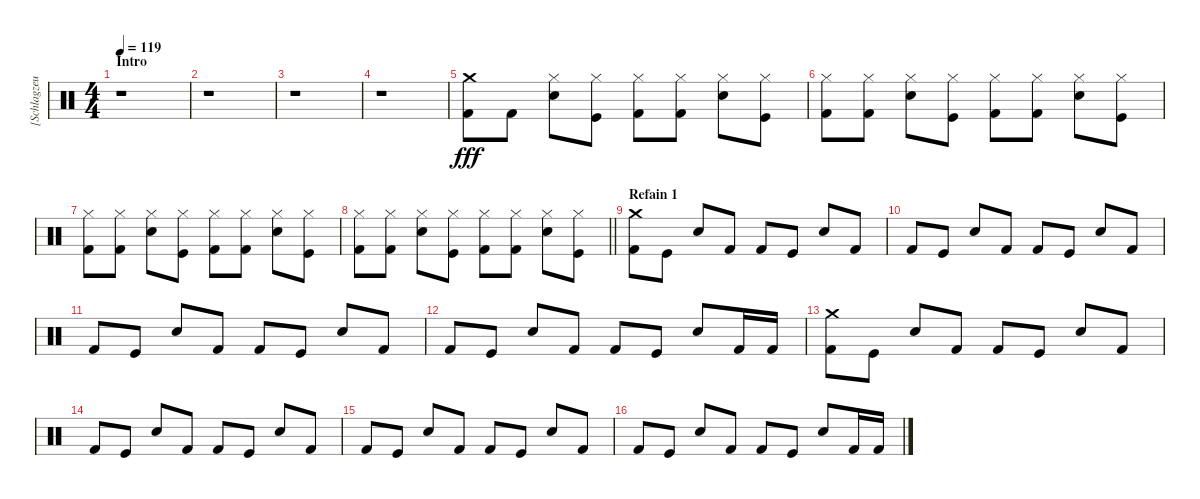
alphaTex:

\track ("[Schlagzeug]" "[Schlagzeu") {instrument percussion}
\staff {score}
\articulation defaults
\ts (4 4)
\section ("" "Intro")
\tempo 119
\clef neutral
\ks aminor
r.1{dy fff} |
\ks c
r.1 |
r.1 |
r.1 |
("Crash medium (hit)" "Kick (hit) 2").8 "Kick (hit) 2".8 ("Hi-Hat (closed)" "Electric Snare (hit)").8 ("Hi-Hat (closed)" "Kick (hit)").8 ("Hi-Hat (closed)" "Kick (hit) 2").8 ("Hi-Hat (closed)" "Kick (hit) 2").8 ("Hi-Hat (closed)" "Electric Snare (hit)").8 ("Hi-Hat (closed)" "Kick (hit)").8 |
("Hi-Hat (closed)" "Kick (hit) 2").8 ("Hi-Hat (closed)" "Kick (hit) 2").8 ("Hi-Hat (closed)" "Electric Snare (hit)").8 ("Hi-Hat (closed)" "Kick (hit)").8 ("Hi-Hat (closed)" "Kick (hit) 2").8 ("Hi-Hat (closed)" "Kick (hit) 2").8 ("Hi-Hat (closed)" "Electric Snare (hit)").8 ("Hi-Hat (closed)" "Kick (hit)").8 |
("Hi-Hat (closed)" "Kick (hit) 2").8 ("Hi-Hat (closed)" "Kick (hit) 2").8 ("Hi-Hat (closed)" "Electric Snare (hit)").8 ("Hi-Hat (closed)" "Kick (hit)").8 ("Hi-Hat (closed)" "Kick (hit) 2").8 ("Hi-Hat (closed)" "Kick (hit) 2").8 ("Hi-Hat (closed)" "Electric Snare (hit)").8 ("Hi-Hat (closed)" "Kick (hit)").8 |
\barLineRight lightlight
("Hi-Hat (closed)" "Kick (hit) 2").8 ("Hi-Hat (closed)" "Kick (hit) 2").8 ("Hi-Hat (closed)" "Electric Snare (hit)").8 ("Hi-Hat (closed)" "Kick (hit)").8 ("Hi-Hat (closed)" "Kick (hit) 2").8 ("Hi-Hat (closed)" "Kick (hit) 2").8 ("Hi-Hat (closed)" "Electric Snare (hit)").8 ("Hi-Hat (closed)" "Kick (hit)").8 |
\section ("" "Refain 1")
("Crash medium (hit)" "Kick (hit) 2").8 "Kick (hit)".8 "Electric Snare (hit)".8 "Kick (hit) 2".8 "Kick (hit) 2".8 "Kick (hit)".8 "Electric Snare (hit)".8 "Kick (hit) 2".8 |
"Kick (hit) 2".8 "Kick (hit)".8 "Electric Snare (hit)".8 "Kick (hit) 2".8 "Kick (hit) 2".8 "Kick (hit)".8 "Electric Snare (hit)".8 "Kick (hit) 2".8 |
"Kick (hit) 2".8 "Kick (hit)".8 "Electric Snare (hit)".8 "Kick (hit) 2".8 "Kick (hit) 2".8 "Kick (hit)".8 "Electric Snare (hit)".8 "Kick (hit) 2".8 |
"Kick (hit) 2".8 "Kick (hit)".8 "Electric Snare (hit)".8 "Kick (hit) 2".8 "Kick (hit) 2".8 "Kick (hit)".8 "Electric Snare (hit)".8 "Kick (hit) 2".16 "Kick (hit) 2".16 |
("Crash medium (hit)" "Kick (hit) 2").8 "Kick (hit)".8 "Electric Snare (hit)".8 "Kick (hit) 2".8 "Kick (hit) 2".8 "Kick (hit)".8 "Electric Snare (hit)".8 "Kick (hit) 2".8 |
"Kick (hit) 2".8 "Kick (hit)".8 "Electric Snare (hit)".8 "Kick (hit) 2".8 "Kick (hit) 2".8 "Kick (hit)".8 "Electric Snare (hit)".8 "Kick (hit) 2".8 |
"Kick (hit) 2".8 "Kick (hit)".8 "Electric Snare (hit)".8 "Kick (hit) 2".8 "Kick (hit) 2".8 "Kick (hit)".8 "Electric Snare (hit)".8 "Kick (hit) 2".8 |
"Kick (hit) 2".8 "Kick (hit)".8 "Electric Snare (hit)".8 "Kick (hit) 2".8 "Kick (hit) 2".8 "Kick (hit)".8 "Electric Snare (hit)".8 "Kick (hit) 2".16 "Kick (hit) 2".16
